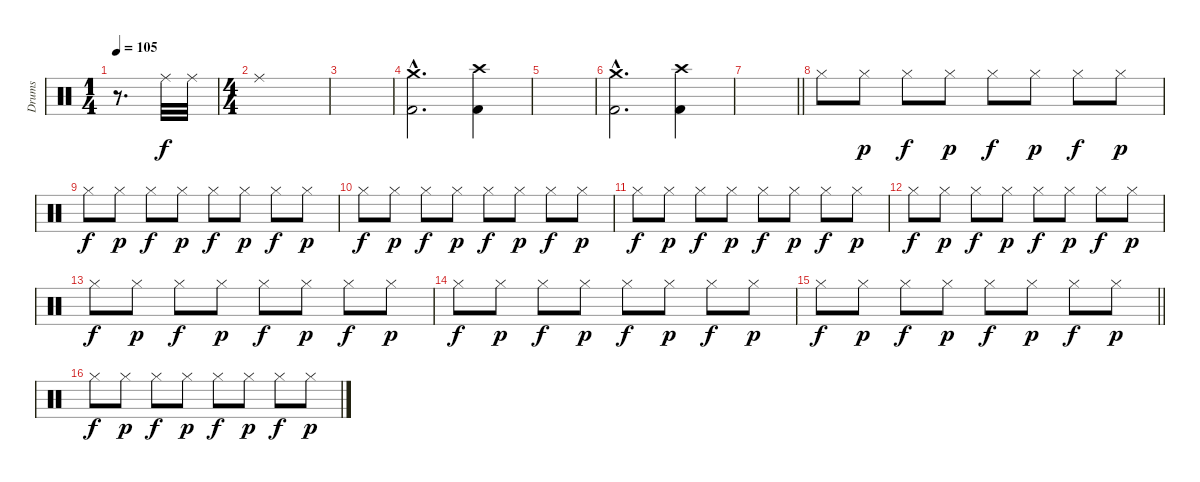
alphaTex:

\track ("Drums" "Drums") {instrument percussion}
\staff {score}
\articulation defaults
\ts (1 4)
\tempo 105
\clef neutral
\ks c
r.8{d dy f} "Ride (middle)".32 "Ride (middle)".32 |
\ts (4 4)
"Ride (middle)".1 |
|
("Kick (hit) 2"{hac} "Crash medium (hit)"{hac}).2{d} ("Kick (hit) 2" "Crash high (hit)").4 |
|
("Kick (hit) 2"{hac} "Crash medium (hit)"{hac}).2{d} ("Kick (hit) 2" "Crash high (hit)").4 |
\barLineRight lightlight
|
"Hi-Hat (closed)".8 "Hi-Hat (closed)".8{dy p} "Hi-Hat (closed)".8{dy f} "Hi-Hat (closed)".8{dy p} "Hi-Hat (closed)".8{dy f} "Hi-Hat (closed)".8{dy p} "Hi-Hat (closed)".8{dy f} "Hi-Hat (closed)".8{dy p} |
"Hi-Hat (closed)".8{dy f} "Hi-Hat (closed)".8{dy p} "Hi-Hat (closed)".8{dy f} "Hi-Hat (closed)".8{dy p} "Hi-Hat (closed)".8{dy f} "Hi-Hat (closed)".8{dy p} "Hi-Hat (closed)".8{dy f} "Hi-Hat (closed)".8{dy p} |
"Hi-Hat (closed)".8{dy f} "Hi-Hat (closed)".8{dy p} "Hi-Hat (closed)".8{dy f} "Hi-Hat (closed)".8{dy p} "Hi-Hat (closed)".8{dy f} "Hi-Hat (closed)".8{dy p} "Hi-Hat (closed)".8{dy f} "Hi-Hat (closed)".8{dy p} |
"Hi-Hat (closed)".8{dy f} "Hi-Hat (closed)".8{dy p} "Hi-Hat (closed)".8{dy f} "Hi-Hat (closed)".8{dy p} "Hi-Hat (closed)".8{dy f} "Hi-Hat (closed)".8{dy p} "Hi-Hat (closed)".8{dy f} "Hi-Hat (closed)".8{dy p} |
"Hi-Hat (closed)".8{dy f} "Hi-Hat (closed)".8{dy p} "Hi-Hat (closed)".8{dy f} "Hi-Hat (closed)".8{dy p} "Hi-Hat (closed)".8{dy f} "Hi-Hat (closed)".8{dy p} "Hi-Hat (closed)".8{dy f} "Hi-Hat (closed)".8{dy p} |
"Hi-Hat (closed)".8{dy f} "Hi-Hat (closed)".8{dy p} "Hi-Hat (closed)".8{dy f} "Hi-Hat (closed)".8{dy p} "Hi-Hat (closed)".8{dy f} "Hi-Hat (closed)".8{dy p} "Hi-Hat (closed)".8{dy f} "Hi-Hat (closed)".8{dy p} |
"Hi-Hat (closed)".8{dy f} "Hi-Hat (closed)".8{dy p} "Hi-Hat (closed)".8{dy f} "Hi-Hat (closed)".8{dy p} "Hi-Hat (closed)".8{dy f} "Hi-Hat (closed)".8{dy p} "Hi-Hat (closed)".8{dy f} "Hi-Hat (closed)".8{dy p} |
\barLineRight lightlight "Hi-Hat (closed)".8{dy f} "Hi-Hat (closed)".8{dy p} "Hi-Hat (closed)".8{dy f} "Hi-Hat (closed)".8{dy p} "Hi-Hat (closed)".8{dy f} "Hi-Hat (closed)".8{dy p} "Hi-Hat (closed)".8{dy f} "Hi-Hat (closed)".8{dy p}
|
"Hi-Hat (closed)".8{dy f} "Hi-Hat (closed)".8{dy p} "Hi-Hat (closed)".8{dy f} "Hi-Hat (closed)".8{dy p} "Hi-Hat (closed)".8{dy f} "Hi-Hat (closed)".8{dy p} "Hi-Hat (closed)".8{dy f} "Hi-Hat (closed)".8{dy p}
